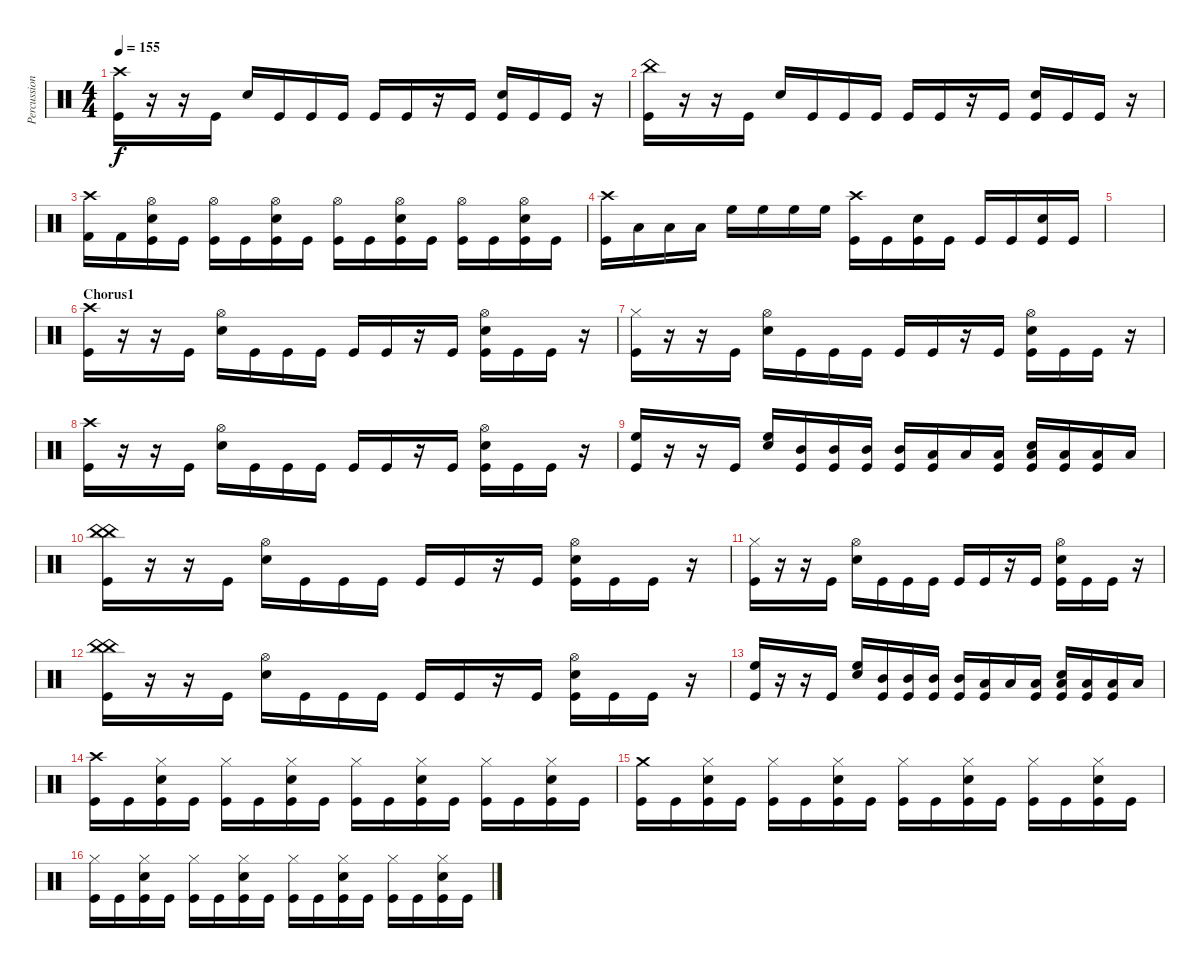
\track ("Percussion" "Percussion") {instrument percussion}
\staff {score}
\articulation defaults
\ts (4 4)
\tempo 155
\clef neutral
\ks c
("Crash high (hit)" "Kick (hit)").16{dy f} r.16 r.16 "Kick (hit)".16 "Electric Snare (hit)".16 "Kick (hit)".16 "Kick (hit)".16 "Kick (hit)".16 "Kick (hit)".16 "Kick (hit)".16 r.16 "Kick (hit)".16 ("Electric Snare (hit)" "Kick (hit)").16 "Kick (hit)".16 "Kick (hit)".16 r.16 |
("China (hit)" "Kick (hit)").16 r.16 r.16 "Kick (hit)".16 "Electric Snare (hit)".16 "Kick (hit)".16 "Kick (hit)".16 "Kick (hit)".16 "Kick (hit)".16 "Kick (hit)".16 r.16 "Kick (hit)".16 ("Electric Snare (hit)" "Kick (hit)").16 "Kick (hit)".16 "Kick (hit)".16 r.16 |
("Crash high (hit)" "Kick (hit) 2").16 "Kick (hit) 2".16 ("Hi-Hat (open)" "Electric Snare (hit)" "Kick (hit)").16 "Kick (hit)".16 ("Hi-Hat (open)" "Kick (hit)").16 "Kick (hit)".16 ("Hi-Hat (open)" "Electric Snare (hit)" "Kick (hit)").16 "Kick (hit)".16 ("Hi-Hat (open)" "Kick (hit)").16 "Kick (hit)".16 ("Hi-Hat (open)" "Electric Snare (hit)" "Kick (hit)").16 "Kick (hit)".16 ("Hi-Hat (open)" "Kick (hit)").16 "Kick (hit)".16 ("Hi-Hat (open)" "Electric Snare (hit)" "Kick (hit)").16 "Kick (hit)".16 |
("Crash high (hit)" "Kick (hit)").16 "Low Tom (hit)".16 "Low Tom (hit)".16 "Low Tom (hit)".16 "High Floor Tom (hit)".16 "High Floor Tom (hit)".16 "High Floor Tom (hit)".16 "High Floor Tom (hit)".16 ("Crash high (hit)" "Kick (hit)").16 "Kick (hit)".16 ("Electric Snare (hit)" "Kick (hit)").16 "Kick (hit)".16 "Kick (hit)".16 "Kick (hit)".16 ("Electric Snare (hit)" "Kick (hit)").16 "Kick (hit)".16 |
|
\section ("" "Chorus1")
("Crash high (hit)" "Kick (hit)").16 r.16 r.16 "Kick (hit)".16 ("Hi-Hat (open)" "Electric Snare (hit)").16 "Kick (hit)".16 "Kick (hit)".16 "Kick (hit)".16 "Kick (hit)".16 "Kick (hit)".16 r.16 "Kick (hit)".16 ("Hi-Hat (open)" "Electric Snare (hit)" "Kick (hit)").16 "Kick (hit)".16 "Kick (hit)".16 r.16 |
("Hi-Hat (closed)" "Kick (hit)").16 r.16 r.16 "Kick (hit)".16 ("Hi-Hat (open)" "Electric Snare (hit)").16 "Kick (hit)".16 "Kick (hit)".16 "Kick (hit)".16 "Kick (hit)".16 "Kick (hit)".16 r.16 "Kick (hit)".16 ("Hi-Hat (open)" "Electric Snare (hit)" "Kick (hit)").16 "Kick (hit)".16 "Kick (hit)".16 r.16 |
("Crash high (hit)" "Kick (hit)").16 r.16 r.16 "Kick (hit)".16 ("Hi-Hat (open)" "Electric Snare (hit)").16 "Kick (hit)".16 "Kick (hit)".16 "Kick (hit)".16 "Kick (hit)".16 "Kick (hit)".16 r.16 "Kick (hit)".16 ("Hi-Hat (open)" "Electric Snare (hit)" "Kick (hit)").16 "Kick (hit)".16 "Kick (hit)".16 r.16 |
("High Floor Tom (hit)" "Kick (hit)").16 r.16 r.16 "Kick (hit)".16 ("High Floor Tom (hit)" "Electric Snare (hit)").16 ("Mid Tom (hit)" "Kick (hit)").16 ("Mid Tom (hit)" "Kick (hit)").16 ("Mid Tom (hit)" "Kick (hit)").16 ("Mid Tom (hit)" "Kick (hit)").16 ("Low Tom (hit)" "Kick (hit)").16 "Low Tom (hit)".16 ("Low Tom (hit)" "Kick (hit)").16 ("Low Tom (hit)" "Electric Snare (hit)" "Kick (hit)").16 ("Low Floor Tom (hit)" "Kick (hit)").16 ("Low Floor Tom (hit)" "Kick (hit)").16 "Low Floor Tom (hit)".16 |
("China (hit)" "China (hit)" "Kick (hit)").16 r.16 r.16 "Kick (hit)".16 ("Hi-Hat (open)" "Electric Snare (hit)").16 "Kick (hit)".16 "Kick (hit)".16 "Kick (hit)".16 "Kick (hit)".16 "Kick (hit)".16 r.16 "Kick (hit)".16 ("Hi-Hat (open)" "Electric Snare (hit)" "Kick (hit)").16 "Kick (hit)".16 "Kick (hit)".16 r.16 |
("Hi-Hat (closed)" "Kick (hit)").16 r.16 r.16 "Kick (hit)".16 ("Hi-Hat (open)" "Electric Snare (hit)").16 "Kick (hit)".16 "Kick (hit)".16 "Kick (hit)".16 "Kick (hit)".16 "Kick (hit)".16 r.16 "Kick (hit)".16 ("Hi-Hat (open)" "Electric Snare (hit)" "Kick (hit)").16 "Kick (hit)".16 "Kick (hit)".16 r.16 |
("China (hit)" "China (hit)" "Kick (hit)").16 r.16 r.16 "Kick (hit)".16 ("Hi-Hat (open)" "Electric Snare (hit)").16 "Kick (hit)".16 "Kick (hit)".16 "Kick (hit)".16 "Kick (hit)".16 "Kick (hit)".16 r.16 "Kick (hit)".16 ("Hi-Hat (open)" "Electric Snare (hit)" "Kick (hit)").16 "Kick (hit)".16 "Kick (hit)".16 r.16 |
("High Floor Tom (hit)" "Kick (hit)").16 r.16 r.16 "Kick (hit)".16 ("High Floor Tom (hit)" "Electric Snare (hit)").16 ("Mid Tom (hit)" "Kick (hit)").16 ("Mid Tom (hit)" "Kick (hit)").16 ("Mid Tom (hit)" "Kick (hit)").16 ("Mid Tom (hit)" "Kick (hit)").16 ("Low Tom (hit)" "Kick (hit)").16 "Low Tom (hit)".16 ("Low Tom (hit)" "Kick (hit)").16 ("Low Tom (hit)" "Electric Snare (hit)" "Kick (hit)").16 ("Low Floor Tom (hit)" "Kick (hit)").16 ("Low Floor Tom (hit)" "Kick (hit)").16 "Low Floor Tom (hit)".16 |
("Crash high (hit)" "Kick (hit)").16 "Kick (hit)".16 ("Hi-Hat (closed)" "Electric Snare (hit)" "Kick (hit)").16 "Kick (hit)".16 ("Hi-Hat (closed)" "Kick (hit)").16 "Kick (hit)".16 ("Hi-Hat (closed)" "Electric Snare (hit)" "Kick (hit)").16 "Kick (hit)".16 ("Hi-Hat (closed)" "Kick (hit)").16 "Kick (hit)".16 ("Hi-Hat (closed)" "Electric Snare (hit)" "Kick (hit)").16 "Kick (hit)".16 ("Hi-Hat (closed)" "Kick (hit)").16 "Kick (hit)".16 ("Hi-Hat (closed)" "Electric Snare (hit)" "Kick (hit)").16 "Kick (hit)".16 |
("Crash medium (hit)" "Kick (hit)").16 "Kick (hit)".16 ("Hi-Hat (closed)" "Electric Snare (hit)" "Kick (hit)").16 "Kick (hit)".16 ("Hi-Hat (closed)" "Kick (hit)").16 "Kick (hit)".16 ("Hi-Hat (closed)" "Electric Snare (hit)" "Kick (hit)").16 "Kick (hit)".16 ("Hi-Hat (closed)" "Kick (hit)").16 "Kick (hit)".16 ("Hi-Hat (closed)" "Electric Snare (hit)" "Kick (hit)").16 "Kick (hit)".16 ("Hi-Hat (closed)" "Kick (hit)").16 "Kick (hit)".16 ("Hi-Hat (closed)" "Electric Snare (hit)" "Kick (hit)").16 "Kick (hit)".16 |
("Hi-Hat (closed)" "Kick (hit)").16 "Kick (hit)".16 ("Hi-Hat (closed)" "Electric Snare (hit)" "Kick (hit)").16 "Kick (hit)".16 ("Hi-Hat (closed)" "Kick (hit)").16 "Kick (hit)".16 ("Hi-Hat (closed)" "Electric Snare (hit)" "Kick (hit)").16 "Kick (hit)".16 ("Hi-Hat (closed)" "Kick (hit)").16 "Kick (hit)".16 ("Hi-Hat (closed)" "Electric Snare (hit)" "Kick (hit)").16 "Kick (hit)".16 ("Hi-Hat (closed)" "Kick (hit)").16 "Kick (hit)".16 ("Hi-Hat (closed)" "Electric Snare (hit)" "Kick (hit)").16 "Kick (hit)".16
